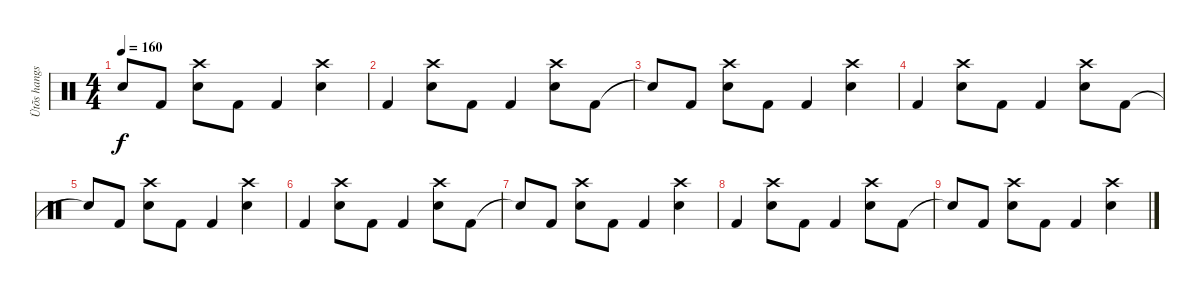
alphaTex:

\track ("Ütõs hangszer" "Ütõs hangs") {instrument percussion}
\staff {score}
\articulation defaults
\ts (4 4)
\tempo 160
\clef neutral
\ks c "Snare (hit)"{t}.8{dy f} "Kick (hit) 2".8
("Crash high (hit)" "Electric Snare (hit)").8 "Kick (hit) 2".8 "Kick (hit) 2".4 ("Crash high (hit)" "Electric Snare (hit)").4 |
"Kick (hit) 2".4 ("Crash high (hit)" "Electric Snare (hit)").8 "Kick (hit) 2".8 "Kick (hit) 2".4 ("Crash high (hit)" "Electric Snare (hit)").8 "Kick (hit) 2".8 |
"Snare (hit)"{t}.8 "Kick (hit) 2".8 ("Crash high (hit)" "Electric Snare (hit)").8 "Kick (hit) 2".8 "Kick (hit) 2".4 ("Crash high (hit)" "Electric Snare (hit)").4 |
"Kick (hit) 2".4 ("Crash high (hit)" "Electric Snare (hit)").8 "Kick (hit) 2".8 "Kick (hit) 2".4 ("Crash high (hit)" "Electric Snare (hit)").8 "Kick (hit) 2".8 |
"Snare (hit)"{t}.8 "Kick (hit) 2".8 ("Crash high (hit)" "Electric Snare (hit)").8 "Kick (hit) 2".8 "Kick (hit) 2".4 ("Crash high (hit)" "Electric Snare (hit)").4 |
"Kick (hit) 2".4 ("Crash high (hit)" "Electric Snare (hit)").8 "Kick (hit) 2".8 "Kick (hit) 2".4 ("Crash high (hit)" "Electric Snare (hit)").8 "Kick (hit) 2".8 |
"Snare (hit)"{t}.8 "Kick (hit) 2".8 ("Crash high (hit)" "Electric Snare (hit)").8 "Kick (hit) 2".8 "Kick (hit) 2".4 ("Crash high (hit)" "Electric Snare (hit)").4 |
"Kick (hit) 2".4 ("Crash high (hit)" "Electric Snare (hit)").8 "Kick (hit) 2".8 "Kick (hit) 2".4 ("Crash high (hit)" "Electric Snare (hit)").8 "Kick (hit) 2".8 |
"Snare (hit)"{t}.8 "Kick (hit) 2".8 ("Crash high (hit)" "Electric Snare (hit)").8 "Kick (hit) 2".8 "Kick (hit) 2".4 ("Crash high (hit)" "Electric Snare (hit)").4
